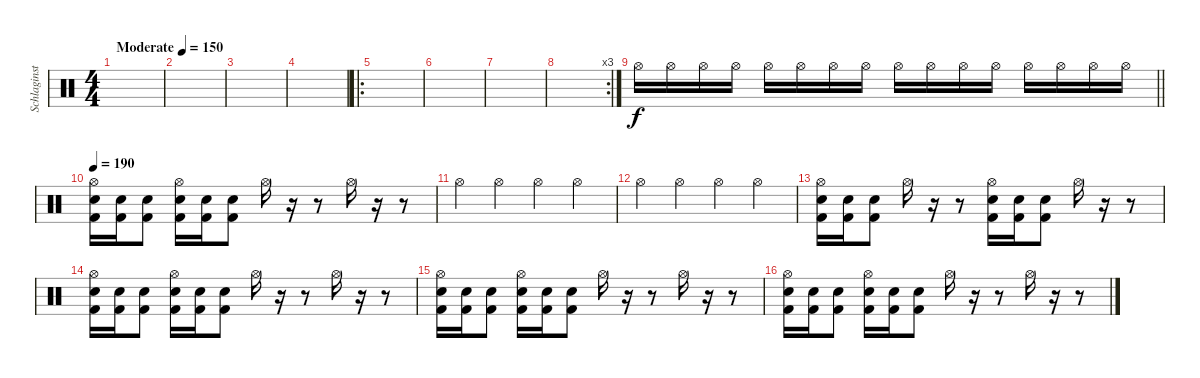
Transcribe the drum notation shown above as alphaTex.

\track ("Schlaginstrumente - Auswahl" "Schlaginst") {instrument percussion}
\staff {score}
\articulation defaults
\ts (4 4)
\tempo (150 "Moderate")
\clef neutral
\ks c
|
|
|
|
\ro
|
|
|
\rc 3
|
\barLineRight lightlight "Hi-Hat (open)".16{volume 0} "Hi-Hat (open)".16{volume 13} "Hi-Hat (open)".16 "Hi-Hat (open)".16 "Hi-Hat (open)".16 "Hi-Hat (open)".16 "Hi-Hat (open)".16 "Hi-Hat (open)".16 "Hi-Hat (open)".16 "Hi-Hat (open)".16 "Hi-Hat (open)".16 "Hi-Hat (open)".16 "Hi-Hat (open)".16 "Hi-Hat (open)".16 "Hi-Hat (open)".16 "Hi-Hat (open)".16
|
\tempo 190
("Hi-Hat (open)" "Kick (hit) 2" "Snare (hit) 2").16 ("Kick (hit) 2" "Snare (hit) 2").16 ("Kick (hit) 2" "Snare (hit) 2").8 ("Hi-Hat (open)" "Kick (hit) 2" "Snare (hit) 2").16 ("Kick (hit) 2" "Snare (hit) 2").16 ("Kick (hit) 2" "Snare (hit) 2").8 "Hi-Hat (open)".16 r.16 r.8 "Hi-Hat (open)".16 r.16 r.8 |
"Hi-Hat (open)".4 "Hi-Hat (open)".4 "Hi-Hat (open)".4 "Hi-Hat (open)".4 |
"Hi-Hat (open)".4 "Hi-Hat (open)".4 "Hi-Hat (open)".4 "Hi-Hat (open)".4 |
("Hi-Hat (open)" "Kick (hit) 2" "Snare (hit) 2").16 ("Kick (hit) 2" "Snare (hit) 2").16 ("Kick (hit) 2" "Snare (hit) 2").8 "Hi-Hat (open)".16 r.16 r.8 ("Hi-Hat (open)" "Kick (hit) 2" "Snare (hit) 2").16 ("Kick (hit) 2" "Snare (hit) 2").16 ("Kick (hit) 2" "Snare (hit) 2").8 "Hi-Hat (open)".16 r.16 r.8 |
("Hi-Hat (open)" "Kick (hit) 2" "Snare (hit) 2").16 ("Kick (hit) 2" "Snare (hit) 2").16 ("Kick (hit) 2" "Snare (hit) 2").8 ("Hi-Hat (open)" "Kick (hit) 2" "Snare (hit) 2").16 ("Kick (hit) 2" "Snare (hit) 2").16 ("Kick (hit) 2" "Snare (hit) 2").8 "Hi-Hat (open)".16 r.16 r.8 "Hi-Hat (open)".16 r.16 r.8 |
("Hi-Hat (open)" "Kick (hit) 2" "Snare (hit) 2").16 ("Kick (hit) 2" "Snare (hit) 2").16 ("Kick (hit) 2" "Snare (hit) 2").8 ("Hi-Hat (open)" "Kick (hit) 2" "Snare (hit) 2").16 ("Kick (hit) 2" "Snare (hit) 2").16 ("Kick (hit) 2" "Snare (hit) 2").8 "Hi-Hat (open)".16 r.16 r.8 "Hi-Hat (open)".16 r.16 r.8 |
("Hi-Hat (open)" "Kick (hit) 2" "Snare (hit) 2").16 ("Kick (hit) 2" "Snare (hit) 2").16 ("Kick (hit) 2" "Snare (hit) 2").8 ("Hi-Hat (open)" "Kick (hit) 2" "Snare (hit) 2").16 ("Kick (hit) 2" "Snare (hit) 2").16 ("Kick (hit) 2" "Snare (hit) 2").8 "Hi-Hat (open)".16 r.16 r.8 "Hi-Hat (open)".16 r.16 r.8
